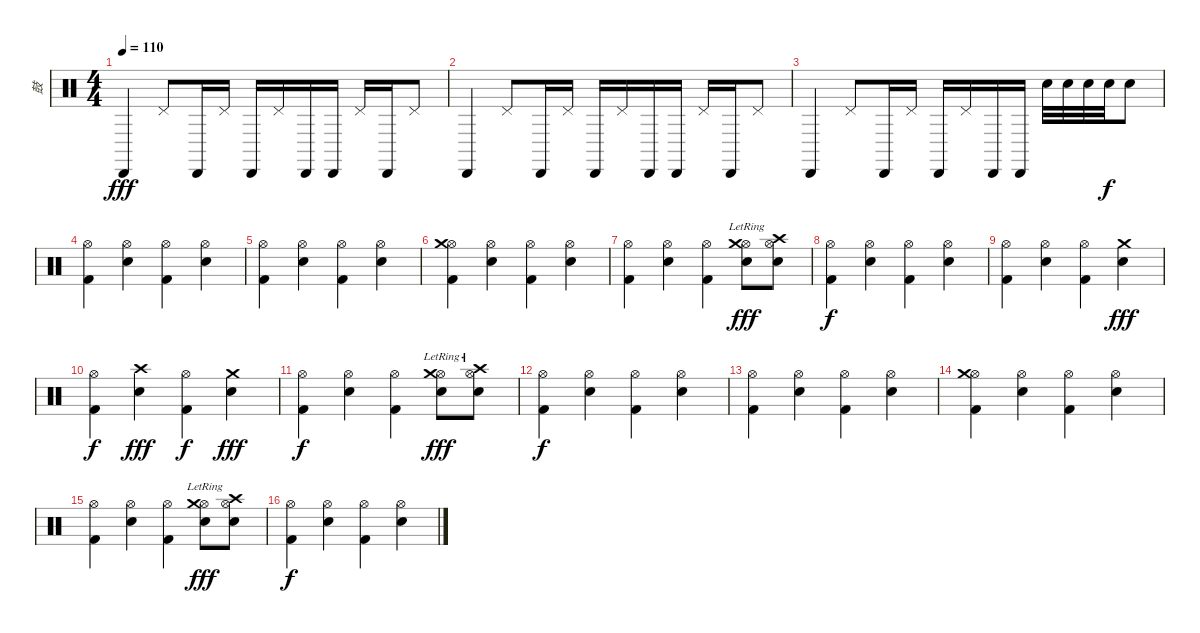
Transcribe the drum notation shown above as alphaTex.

\track ("鼓" "鼓") {instrument percussion}
\staff {score}
\articulation defaults
\ts (4 4)
\tempo 110
\clef neutral
\ks c "Cabasa (hit)".4{dy fff} "Pedal Hi-Hat (hit)".8 "Cabasa (hit)".16 "Pedal Hi-Hat (hit)".16 "Cabasa (hit)".16 "Pedal Hi-Hat (hit)".16 "Cabasa (hit)".16 "Cabasa (hit)".16 "Pedal Hi-Hat (hit)".16 "Cabasa (hit)".16 "Pedal Hi-Hat (hit)".8
|
"Cabasa (hit)".4 "Pedal Hi-Hat (hit)".8 "Cabasa (hit)".16 "Pedal Hi-Hat (hit)".16 "Cabasa (hit)".16 "Pedal Hi-Hat (hit)".16 "Cabasa (hit)".16 "Cabasa (hit)".16 "Pedal Hi-Hat (hit)".16 "Cabasa (hit)".16 "Pedal Hi-Hat (hit)".8 |
"Cabasa (hit)".4 "Pedal Hi-Hat (hit)".8 "Cabasa (hit)".16 "Pedal Hi-Hat (hit)".16 "Cabasa (hit)".16 "Pedal Hi-Hat (hit)".16 "Cabasa (hit)".16 "Cabasa (hit)".16 "Electric Snare (hit)".32 "Electric Snare (hit)".32 "Electric Snare (hit)".32 "Electric Snare (hit)".32{dy f} "Electric Snare (hit)".8 |
("Hi-Hat (open)" "Kick (hit) 2").4 ("Hi-Hat (open)" "Electric Snare (hit)").4 ("Hi-Hat (open)" "Kick (hit) 2").4 ("Hi-Hat (open)" "Electric Snare (hit)").4 |
("Hi-Hat (open)" "Kick (hit) 2").4 ("Hi-Hat (open)" "Electric Snare (hit)").4 ("Hi-Hat (open)" "Kick (hit) 2").4 ("Hi-Hat (open)" "Electric Snare (hit)").4 |
("Hi-Hat (open)" "Crash medium (hit)" "Kick (hit) 2").4 ("Hi-Hat (open)" "Electric Snare (hit)").4 ("Hi-Hat (open)" "Kick (hit) 2").4 ("Hi-Hat (open)" "Electric Snare (hit)").4 |
("Hi-Hat (open)" "Kick (hit) 2").4 ("Hi-Hat (open)" "Electric Snare (hit)").4 ("Hi-Hat (open)" "Kick (hit) 2").4 ("Hi-Hat (open)" "Crash medium (hit)"{lr} "Electric Snare (hit)").8{dy fff} ("Hi-Hat (open)" "Crash high (hit)"{lr} "Electric Snare (hit)").8 |
("Hi-Hat (open)" "Kick (hit) 2").4{dy f} ("Hi-Hat (open)" "Electric Snare (hit)").4 ("Hi-Hat (open)" "Kick (hit) 2").4 ("Hi-Hat (open)" "Electric Snare (hit)").4 |
("Hi-Hat (open)" "Kick (hit) 2").4 ("Hi-Hat (open)" "Electric Snare (hit)").4 ("Hi-Hat (open)" "Kick (hit) 2").4 ("Crash medium (hit)" "Electric Snare (hit)").4{dy fff} |
("Hi-Hat (open)" "Kick (hit) 2").4{dy f} ("Crash high (hit)" "Electric Snare (hit)").4{dy fff} ("Hi-Hat (open)" "Kick (hit) 2").4{dy f} ("Crash medium (hit)" "Electric Snare (hit)").4{dy fff} |
("Hi-Hat (open)" "Kick (hit) 2").4{dy f} ("Hi-Hat (open)" "Electric Snare (hit)").4 ("Hi-Hat (open)" "Kick (hit) 2").4 ("Hi-Hat (open)" "Crash medium (hit)"{lr} "Electric Snare (hit)").8{dy fff} ("Hi-Hat (open)" "Crash high (hit)"{lr} "Electric Snare (hit)").8 |
("Hi-Hat (open)" "Kick (hit) 2").4{dy f} ("Hi-Hat (open)" "Electric Snare (hit)").4 ("Hi-Hat (open)" "Kick (hit) 2").4 ("Hi-Hat (open)" "Electric Snare (hit)").4 |
("Hi-Hat (open)" "Kick (hit) 2").4 ("Hi-Hat (open)" "Electric Snare (hit)").4 ("Hi-Hat (open)" "Kick (hit) 2").4 ("Hi-Hat (open)" "Electric Snare (hit)").4 |
("Hi-Hat (open)" "Crash medium (hit)" "Kick (hit) 2").4 ("Hi-Hat (open)" "Electric Snare (hit)").4 ("Hi-Hat (open)" "Kick (hit) 2").4 ("Hi-Hat (open)" "Electric Snare (hit)").4 |
("Hi-Hat (open)" "Kick (hit) 2").4 ("Hi-Hat (open)" "Electric Snare (hit)").4 ("Hi-Hat (open)" "Kick (hit) 2").4 ("Hi-Hat (open)" "Crash medium (hit)"{lr} "Electric Snare (hit)").8{dy fff} ("Hi-Hat (open)" "Crash high (hit)"{lr} "Electric Snare (hit)").8 |
("Hi-Hat (open)" "Kick (hit) 2").4{dy f} ("Hi-Hat (open)" "Electric Snare (hit)").4 ("Hi-Hat (open)" "Kick (hit) 2").4 ("Hi-Hat (open)" "Electric Snare (hit)").4
